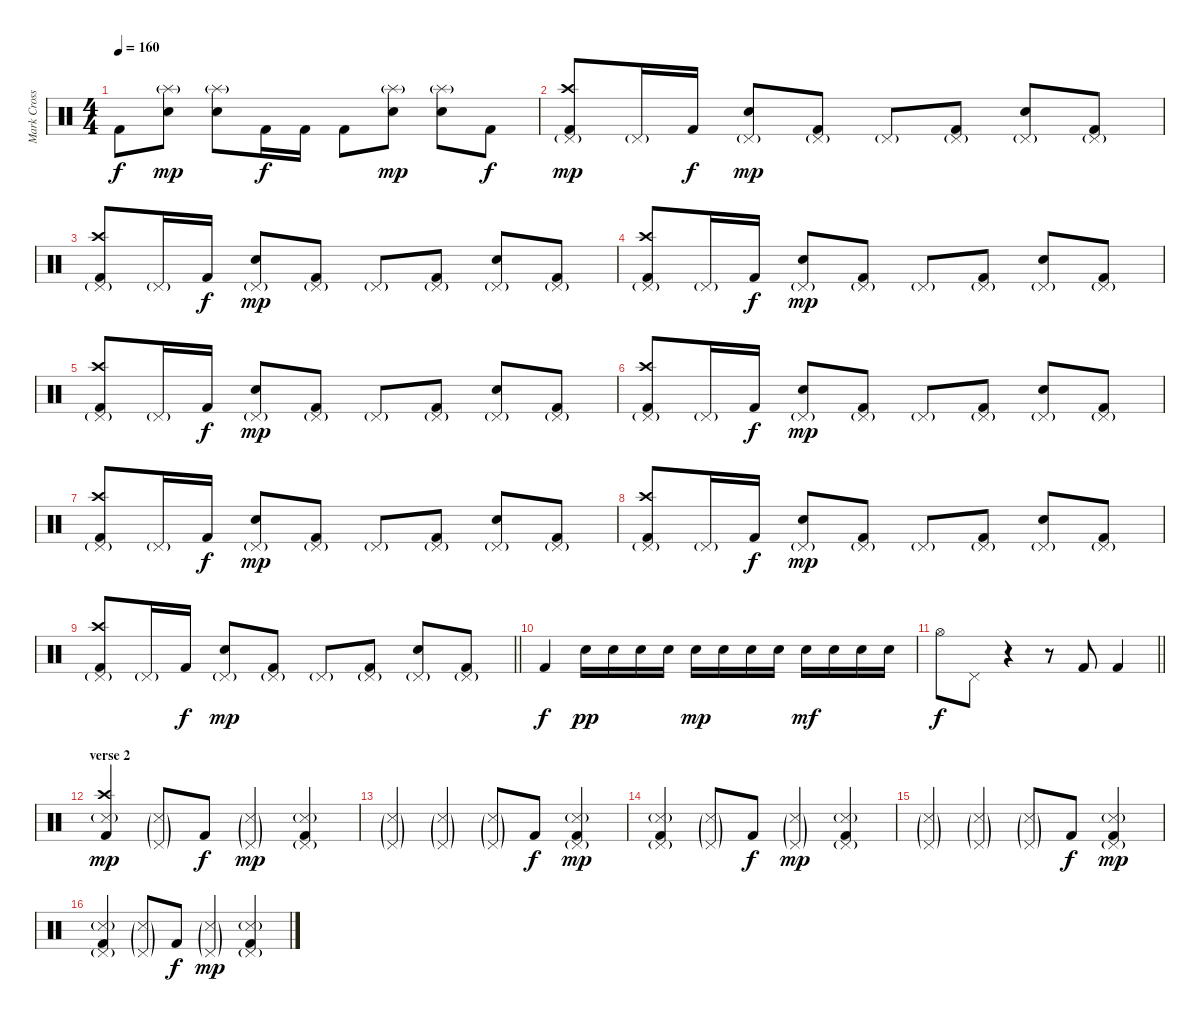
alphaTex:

\track ("Mark Cross" "Mark Cross") {instrument percussion}
\staff {score}
\articulation defaults
\ts (4 4)
\tempo 160
\clef neutral
\ks aminor "Kick (hit) 2".8{dy f}
("Splash (hit)"{g} "Electric Snare (hit)").8{dy mp} ("Splash (hit)"{g} "Electric Snare (hit)").8 "Kick (hit) 2".16{dy f} "Kick (hit) 2".16 "Kick (hit) 2".8 ("Splash (hit)"{g} "Electric Snare (hit)").8{dy mp} ("Splash (hit)"{g} "Electric Snare (hit)").8 "Kick (hit) 2".8{dy f} |
("Crash high (hit)" "Pedal Hi-Hat (hit)"{g} "Kick (hit) 2").8{dy mp} "Pedal Hi-Hat (hit)"{g}.16 "Kick (hit) 2".16{dy f} ("Pedal Hi-Hat (hit)"{g} "Electric Snare (hit)").8{dy mp} ("Pedal Hi-Hat (hit)"{g} "Kick (hit) 2").8 "Pedal Hi-Hat (hit)"{g}.8 ("Pedal Hi-Hat (hit)"{g} "Kick (hit) 2").8 ("Pedal Hi-Hat (hit)"{g} "Electric Snare (hit)").8 ("Pedal Hi-Hat (hit)"{g} "Kick (hit) 2").8 |
("Crash high (hit)" "Pedal Hi-Hat (hit)"{g} "Kick (hit) 2").8 "Pedal Hi-Hat (hit)"{g}.16 "Kick (hit) 2".16{dy f} ("Pedal Hi-Hat (hit)"{g} "Electric Snare (hit)").8{dy mp} ("Pedal Hi-Hat (hit)"{g} "Kick (hit) 2").8 "Pedal Hi-Hat (hit)"{g}.8 ("Pedal Hi-Hat (hit)"{g} "Kick (hit) 2").8 ("Pedal Hi-Hat (hit)"{g} "Electric Snare (hit)").8 ("Pedal Hi-Hat (hit)"{g} "Kick (hit) 2").8 |
("Crash high (hit)" "Pedal Hi-Hat (hit)"{g} "Kick (hit) 2").8 "Pedal Hi-Hat (hit)"{g}.16 "Kick (hit) 2".16{dy f} ("Pedal Hi-Hat (hit)"{g} "Electric Snare (hit)").8{dy mp} ("Pedal Hi-Hat (hit)"{g} "Kick (hit) 2").8 "Pedal Hi-Hat (hit)"{g}.8 ("Pedal Hi-Hat (hit)"{g} "Kick (hit) 2").8 ("Pedal Hi-Hat (hit)"{g} "Electric Snare (hit)").8 ("Pedal Hi-Hat (hit)"{g} "Kick (hit) 2").8 |
("Crash high (hit)" "Pedal Hi-Hat (hit)"{g} "Kick (hit) 2").8 "Pedal Hi-Hat (hit)"{g}.16 "Kick (hit) 2".16{dy f} ("Pedal Hi-Hat (hit)"{g} "Electric Snare (hit)").8{dy mp} ("Pedal Hi-Hat (hit)"{g} "Kick (hit) 2").8 "Pedal Hi-Hat (hit)"{g}.8 ("Pedal Hi-Hat (hit)"{g} "Kick (hit) 2").8 ("Pedal Hi-Hat (hit)"{g} "Electric Snare (hit)").8 ("Pedal Hi-Hat (hit)"{g} "Kick (hit) 2").8 |
("Crash high (hit)" "Pedal Hi-Hat (hit)"{g} "Kick (hit) 2").8 "Pedal Hi-Hat (hit)"{g}.16 "Kick (hit) 2".16{dy f} ("Pedal Hi-Hat (hit)"{g} "Electric Snare (hit)").8{dy mp} ("Pedal Hi-Hat (hit)"{g} "Kick (hit) 2").8 "Pedal Hi-Hat (hit)"{g}.8 ("Pedal Hi-Hat (hit)"{g} "Kick (hit) 2").8 ("Pedal Hi-Hat (hit)"{g} "Electric Snare (hit)").8 ("Pedal Hi-Hat (hit)"{g} "Kick (hit) 2").8 |
("Crash high (hit)" "Pedal Hi-Hat (hit)"{g} "Kick (hit) 2").8 "Pedal Hi-Hat (hit)"{g}.16 "Kick (hit) 2".16{dy f} ("Pedal Hi-Hat (hit)"{g} "Electric Snare (hit)").8{dy mp} ("Pedal Hi-Hat (hit)"{g} "Kick (hit) 2").8 "Pedal Hi-Hat (hit)"{g}.8 ("Pedal Hi-Hat (hit)"{g} "Kick (hit) 2").8 ("Pedal Hi-Hat (hit)"{g} "Electric Snare (hit)").8 ("Pedal Hi-Hat (hit)"{g} "Kick (hit) 2").8 |
("Crash high (hit)" "Pedal Hi-Hat (hit)"{g} "Kick (hit) 2").8 "Pedal Hi-Hat (hit)"{g}.16 "Kick (hit) 2".16{dy f} ("Pedal Hi-Hat (hit)"{g} "Electric Snare (hit)").8{dy mp} ("Pedal Hi-Hat (hit)"{g} "Kick (hit) 2").8 "Pedal Hi-Hat (hit)"{g}.8 ("Pedal Hi-Hat (hit)"{g} "Kick (hit) 2").8 ("Pedal Hi-Hat (hit)"{g} "Electric Snare (hit)").8 ("Pedal Hi-Hat (hit)"{g} "Kick (hit) 2").8 |
\barLineRight lightlight
("Crash high (hit)" "Pedal Hi-Hat (hit)"{g} "Kick (hit) 2").8 "Pedal Hi-Hat (hit)"{g}.16 "Kick (hit) 2".16{dy f} ("Pedal Hi-Hat (hit)"{g} "Electric Snare (hit)").8{dy mp} ("Pedal Hi-Hat (hit)"{g} "Kick (hit) 2").8 "Pedal Hi-Hat (hit)"{g}.8 ("Pedal Hi-Hat (hit)"{g} "Kick (hit) 2").8 ("Pedal Hi-Hat (hit)"{g} "Electric Snare (hit)").8 ("Pedal Hi-Hat (hit)"{g} "Kick (hit) 2").8 |
"Kick (hit) 2".4{dy f} "Electric Snare (hit)".16{dy pp} "Electric Snare (hit)".16 "Electric Snare (hit)".16 "Electric Snare (hit)".16 "Electric Snare (hit)".16{dy mp} "Electric Snare (hit)".16 "Electric Snare (hit)".16 "Electric Snare (hit)".16 "Electric Snare (hit)".16{dy mf} "Electric Snare (hit)".16 "Electric Snare (hit)".16 "Electric Snare (hit)".16 |
\barLineRight lightlight "Hi-Hat (open)".8{dy f} "Pedal Hi-Hat (hit)".8
r.4 r.8 "Kick (hit) 2".8 "Kick (hit) 2".4 |
\section ("" "verse 2")
("Crash high (hit)" "Metronome (hit)"{g} "Kick (hit) 2").4{dy mp} ("Pedal Hi-Hat (hit)"{g} "Metronome (hit)"{g}).8 "Kick (hit) 2".8{dy f} ("Pedal Hi-Hat (hit)"{g} "Metronome (hit)"{g}).4{dy mp} ("Pedal Hi-Hat (hit)"{g} "Metronome (hit)"{g} "Kick (hit) 2").4 |
("Pedal Hi-Hat (hit)"{g} "Metronome (hit)"{g}).4 ("Pedal Hi-Hat (hit)"{g} "Metronome (hit)"{g}).4 ("Pedal Hi-Hat (hit)"{g} "Metronome (hit)"{g}).8 "Kick (hit) 2".8{dy f} ("Pedal Hi-Hat (hit)"{g} "Metronome (hit)"{g} "Kick (hit) 2").4{dy mp} |
("Pedal Hi-Hat (hit)"{g} "Metronome (hit)"{g} "Kick (hit) 2").4 ("Pedal Hi-Hat (hit)"{g} "Metronome (hit)"{g}).8 "Kick (hit) 2".8{dy f} ("Pedal Hi-Hat (hit)"{g} "Metronome (hit)"{g}).4{dy mp} ("Pedal Hi-Hat (hit)"{g} "Metronome (hit)"{g} "Kick (hit) 2").4 |
("Pedal Hi-Hat (hit)"{g} "Metronome (hit)"{g}).4 ("Pedal Hi-Hat (hit)"{g} "Metronome (hit)"{g}).4 ("Pedal Hi-Hat (hit)"{g} "Metronome (hit)"{g}).8 "Kick (hit) 2".8{dy f} ("Pedal Hi-Hat (hit)"{g} "Metronome (hit)"{g} "Kick (hit) 2").4{dy mp} |
("Pedal Hi-Hat (hit)"{g} "Metronome (hit)"{g} "Kick (hit) 2").4 ("Pedal Hi-Hat (hit)"{g} "Metronome (hit)"{g}).8 "Kick (hit) 2".8{dy f} ("Pedal Hi-Hat (hit)"{g} "Metronome (hit)"{g}).4{dy mp} ("Pedal Hi-Hat (hit)"{g} "Metronome (hit)"{g} "Kick (hit) 2").4
